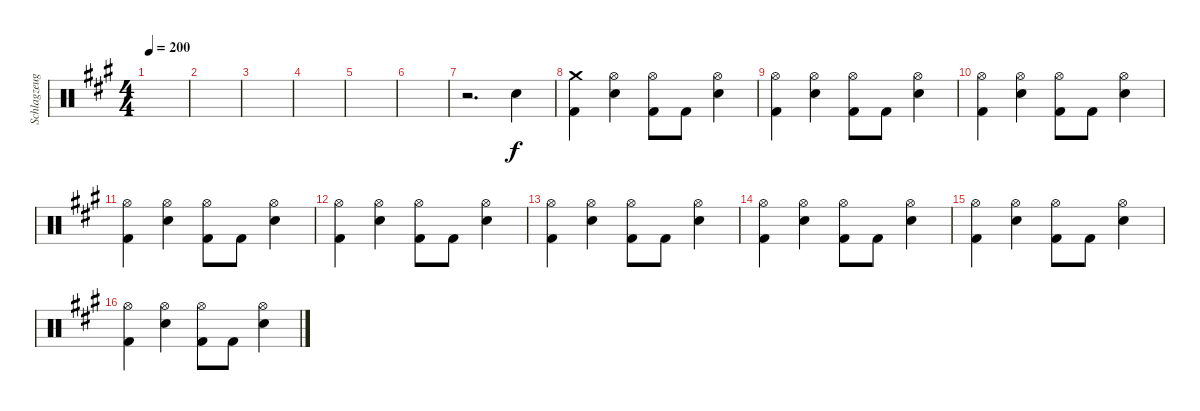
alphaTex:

\track ("Schlagzeug" "Schlagzeug") {instrument percussion}
\staff {score}
\articulation defaults
\ts (4 4)
\tempo 200
\clef neutral
\ks a
|
|
|
|
|
|
r.2{d} "Snare (hit) 2".4 |
("Crash medium (hit)" "Kick (hit) 2").4 ("Hi-Hat (open)" "Snare (hit) 2").4 ("Hi-Hat (open)" "Kick (hit) 2").8 "Kick (hit) 2".8 ("Hi-Hat (open)" "Snare (hit) 2").4 |
("Hi-Hat (open)" "Kick (hit) 2").4 ("Hi-Hat (open)" "Snare (hit) 2").4 ("Hi-Hat (open)" "Kick (hit) 2").8 "Kick (hit) 2".8 ("Hi-Hat (open)" "Snare (hit) 2").4 |
("Hi-Hat (open)" "Kick (hit) 2").4 ("Hi-Hat (open)" "Snare (hit) 2").4 ("Hi-Hat (open)" "Kick (hit) 2").8 "Kick (hit) 2".8 ("Hi-Hat (open)" "Snare (hit) 2").4 |
("Hi-Hat (open)" "Kick (hit) 2").4 ("Hi-Hat (open)" "Snare (hit) 2").4 ("Hi-Hat (open)" "Kick (hit) 2").8 "Kick (hit) 2".8 ("Hi-Hat (open)" "Snare (hit) 2").4 |
("Hi-Hat (open)" "Kick (hit) 2").4 ("Hi-Hat (open)" "Snare (hit) 2").4 ("Hi-Hat (open)" "Kick (hit) 2").8 "Kick (hit) 2".8 ("Hi-Hat (open)" "Snare (hit) 2").4 |
("Hi-Hat (open)" "Kick (hit) 2").4 ("Hi-Hat (open)" "Snare (hit) 2").4 ("Hi-Hat (open)" "Kick (hit) 2").8 "Kick (hit) 2".8 ("Hi-Hat (open)" "Snare (hit) 2").4 |
("Hi-Hat (open)" "Kick (hit) 2").4 ("Hi-Hat (open)" "Snare (hit) 2").4 ("Hi-Hat (open)" "Kick (hit) 2").8 "Kick (hit) 2".8 ("Hi-Hat (open)" "Snare (hit) 2").4 |
("Hi-Hat (open)" "Kick (hit) 2").4 ("Hi-Hat (open)" "Snare (hit) 2").4 ("Hi-Hat (open)" "Kick (hit) 2").8 "Kick (hit) 2".8 ("Hi-Hat (open)" "Snare (hit) 2").4 |
("Hi-Hat (open)" "Kick (hit) 2").4 ("Hi-Hat (open)" "Snare (hit) 2").4 ("Hi-Hat (open)" "Kick (hit) 2").8 "Kick (hit) 2".8 ("Hi-Hat (open)" "Snare (hit) 2").4
